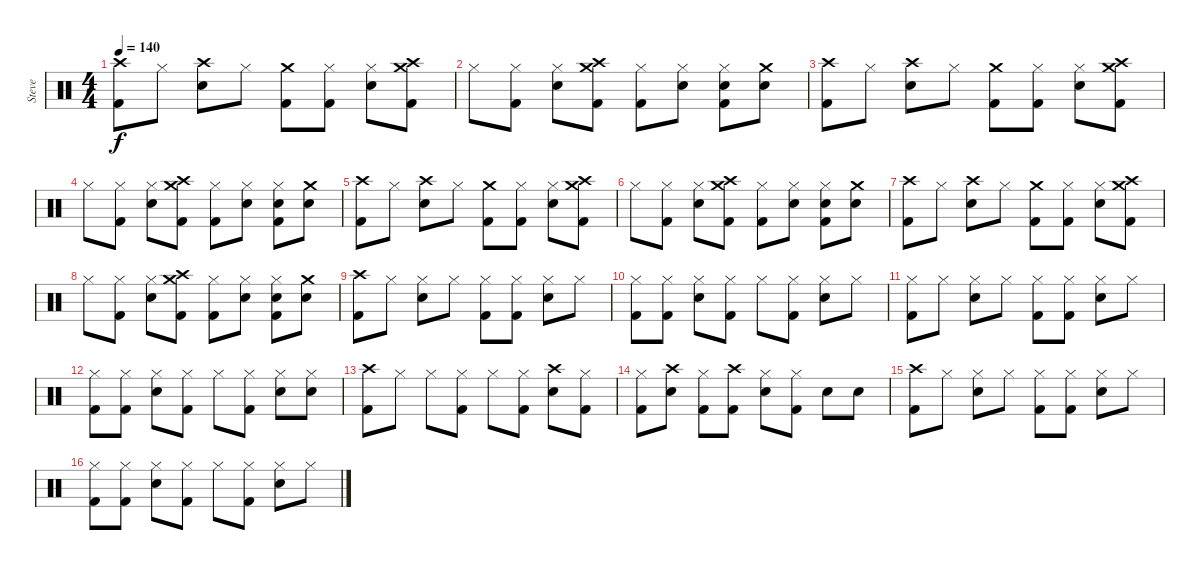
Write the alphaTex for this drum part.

\track ("Steve" "Steve") {instrument percussion}
\staff {score}
\articulation defaults
\ts (4 4)
\tempo 140
\clef neutral
\ks c
("Crash high (hit)" "Kick (hit) 2").8{dy f} "Hi-Hat (closed)".8 ("Crash high (hit)" "Snare (hit) 2").8 "Hi-Hat (closed)".8 ("Crash medium (hit)" "Kick (hit) 2").8 ("Hi-Hat (closed)" "Kick (hit) 2").8 ("Hi-Hat (closed)" "Snare (hit) 2").8 ("Crash high (hit)" "Crash medium (hit)" "Kick (hit) 2").8 |
"Hi-Hat (closed)".8 ("Hi-Hat (closed)" "Kick (hit) 2").8 ("Hi-Hat (closed)" "Snare (hit) 2").8 ("Crash high (hit)" "Crash medium (hit)" "Kick (hit) 2").8 ("Hi-Hat (closed)" "Kick (hit) 2").8 ("Hi-Hat (closed)" "Snare (hit) 2").8 ("Hi-Hat (closed)" "Snare (hit) 2" "Kick (hit) 2").8 ("Crash medium (hit)" "Snare (hit) 2").8 |
("Crash high (hit)" "Kick (hit) 2").8 "Hi-Hat (closed)".8 ("Crash high (hit)" "Snare (hit) 2").8 "Hi-Hat (closed)".8 ("Crash medium (hit)" "Kick (hit) 2").8 ("Hi-Hat (closed)" "Kick (hit) 2").8 ("Hi-Hat (closed)" "Snare (hit) 2").8 ("Crash high (hit)" "Crash medium (hit)" "Kick (hit) 2").8 |
"Hi-Hat (closed)".8 ("Hi-Hat (closed)" "Kick (hit) 2").8 ("Hi-Hat (closed)" "Snare (hit) 2").8 ("Crash high (hit)" "Crash medium (hit)" "Kick (hit) 2").8 ("Hi-Hat (closed)" "Kick (hit) 2").8 ("Hi-Hat (closed)" "Snare (hit) 2").8 ("Hi-Hat (closed)" "Snare (hit) 2" "Kick (hit) 2").8 ("Crash medium (hit)" "Snare (hit) 2").8 |
("Crash high (hit)" "Kick (hit) 2").8 "Hi-Hat (closed)".8 ("Crash high (hit)" "Snare (hit) 2").8 "Hi-Hat (closed)".8 ("Crash medium (hit)" "Kick (hit) 2").8 ("Hi-Hat (closed)" "Kick (hit) 2").8 ("Hi-Hat (closed)" "Snare (hit) 2").8 ("Crash high (hit)" "Crash medium (hit)" "Kick (hit) 2").8 |
"Hi-Hat (closed)".8 ("Hi-Hat (closed)" "Kick (hit) 2").8 ("Hi-Hat (closed)" "Snare (hit) 2").8 ("Crash high (hit)" "Crash medium (hit)" "Kick (hit) 2").8 ("Hi-Hat (closed)" "Kick (hit) 2").8 ("Hi-Hat (closed)" "Snare (hit) 2").8 ("Hi-Hat (closed)" "Snare (hit) 2" "Kick (hit) 2").8 ("Crash medium (hit)" "Snare (hit) 2").8 |
("Crash high (hit)" "Kick (hit) 2").8 "Hi-Hat (closed)".8 ("Crash high (hit)" "Snare (hit) 2").8 "Hi-Hat (closed)".8 ("Crash medium (hit)" "Kick (hit) 2").8 ("Hi-Hat (closed)" "Kick (hit) 2").8 ("Hi-Hat (closed)" "Snare (hit) 2").8 ("Crash high (hit)" "Crash medium (hit)" "Kick (hit) 2").8 |
"Hi-Hat (closed)".8 ("Hi-Hat (closed)" "Kick (hit) 2").8 ("Hi-Hat (closed)" "Snare (hit) 2").8 ("Crash high (hit)" "Crash medium (hit)" "Kick (hit) 2").8 ("Hi-Hat (closed)" "Kick (hit) 2").8 ("Hi-Hat (closed)" "Snare (hit) 2").8 ("Hi-Hat (closed)" "Snare (hit) 2" "Kick (hit) 2").8 ("Crash medium (hit)" "Snare (hit) 2").8 |
("Crash high (hit)" "Kick (hit) 2").8 "Hi-Hat (closed)".8 ("Hi-Hat (closed)" "Snare (hit) 2").8 "Hi-Hat (closed)".8 ("Hi-Hat (closed)" "Kick (hit) 2").8 ("Hi-Hat (closed)" "Kick (hit) 2").8 ("Hi-Hat (closed)" "Snare (hit) 2").8 "Hi-Hat (closed)".8 |
("Hi-Hat (closed)" "Kick (hit) 2").8 ("Hi-Hat (closed)" "Kick (hit) 2").8 ("Hi-Hat (closed)" "Snare (hit) 2").8 ("Hi-Hat (closed)" "Kick (hit) 2").8 "Hi-Hat (closed)".8 ("Hi-Hat (closed)" "Kick (hit) 2").8 ("Hi-Hat (closed)" "Snare (hit) 2").8 "Hi-Hat (closed)".8 |
("Hi-Hat (closed)" "Kick (hit) 2").8 "Hi-Hat (closed)".8 ("Hi-Hat (closed)" "Snare (hit) 2").8 "Hi-Hat (closed)".8 ("Hi-Hat (closed)" "Kick (hit) 2").8 ("Hi-Hat (closed)" "Kick (hit) 2").8 ("Hi-Hat (closed)" "Snare (hit) 2").8 "Hi-Hat (closed)".8 |
("Hi-Hat (closed)" "Kick (hit) 2").8 ("Hi-Hat (closed)" "Kick (hit) 2").8 ("Hi-Hat (closed)" "Snare (hit) 2").8 ("Hi-Hat (closed)" "Kick (hit) 2").8 "Hi-Hat (closed)".8 ("Hi-Hat (closed)" "Kick (hit) 2").8 ("Hi-Hat (closed)" "Snare (hit) 2").8 ("Hi-Hat (closed)" "Snare (hit) 2").8 |
("Crash high (hit)" "Kick (hit) 2").8 "Hi-Hat (closed)".8 "Hi-Hat (closed)".8 ("Hi-Hat (closed)" "Kick (hit) 2").8 "Hi-Hat (closed)".8 ("Hi-Hat (closed)" "Kick (hit) 2").8 ("Crash high (hit)" "Snare (hit) 2").8 ("Hi-Hat (closed)" "Kick (hit) 2").8 |
("Hi-Hat (closed)" "Kick (hit) 2").8 ("Crash high (hit)" "Snare (hit) 2").8 ("Hi-Hat (closed)" "Kick (hit) 2").8 ("Crash high (hit)" "Kick (hit) 2").8 ("Hi-Hat (closed)" "Snare (hit) 2").8 ("Hi-Hat (closed)" "Kick (hit) 2").8 "Snare (hit) 2".8 "Snare (hit) 2".8 |
("Crash high (hit)" "Kick (hit) 2").8 "Hi-Hat (closed)".8 ("Hi-Hat (closed)" "Snare (hit) 2").8 "Hi-Hat (closed)".8 ("Hi-Hat (closed)" "Kick (hit) 2").8 ("Hi-Hat (closed)" "Kick (hit) 2").8 ("Hi-Hat (closed)" "Snare (hit) 2").8 "Hi-Hat (closed)".8 |
("Hi-Hat (closed)" "Kick (hit) 2").8 ("Hi-Hat (closed)" "Kick (hit) 2").8 ("Hi-Hat (closed)" "Snare (hit) 2").8 ("Hi-Hat (closed)" "Kick (hit) 2").8 "Hi-Hat (closed)".8 ("Hi-Hat (closed)" "Kick (hit) 2").8 ("Hi-Hat (closed)" "Snare (hit) 2").8 "Hi-Hat (closed)".8
